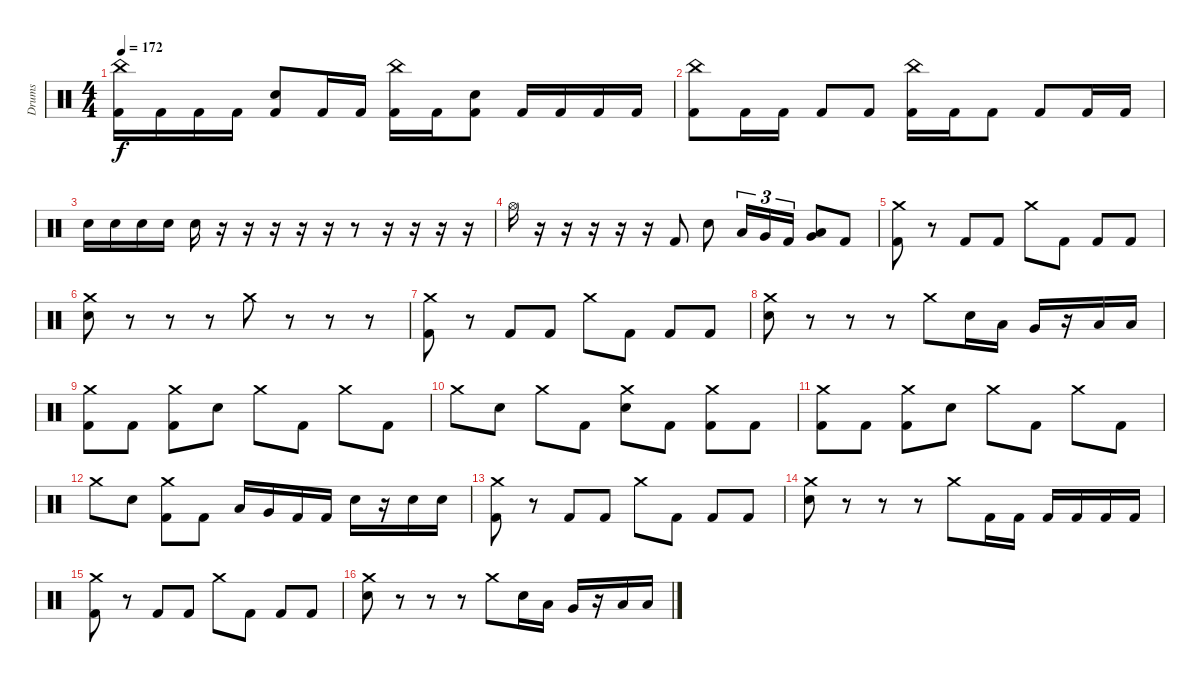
\track ("Drums" "Drums") {instrument percussion}
\staff {score}
\articulation defaults
\ts (4 4)
\tempo 172
\clef neutral
\ks c
("China (hit)" "Kick (hit) 2").16{dy f} "Kick (hit) 2".16 "Kick (hit) 2".16 "Kick (hit) 2".16 ("Electric Snare (hit)" "Kick (hit) 2").8 "Kick (hit) 2".16 "Kick (hit) 2".16 ("China (hit)" "Kick (hit) 2").16 "Kick (hit) 2".16 ("Electric Snare (hit)" "Kick (hit) 2").8 "Kick (hit) 2".16 "Kick (hit) 2".16 "Kick (hit) 2".16 "Kick (hit) 2".16 |
("China (hit)" "Kick (hit) 2").8 "Kick (hit) 2".16 "Kick (hit) 2".16 "Kick (hit) 2".8 "Kick (hit) 2".8 ("China (hit)" "Kick (hit) 2").16 "Kick (hit) 2".16 "Kick (hit) 2".8 "Kick (hit) 2".8 "Kick (hit) 2".16 "Kick (hit) 2".16 |
"Electric Snare (hit)".16 "Electric Snare (hit)".16 "Electric Snare (hit)".16 "Electric Snare (hit)".16 "Electric Snare (hit)".16 r.16 r.16 r.16 r.16 r.16 r.8 r.16 r.16 r.16 r.16 |
"Hi-Hat (open)".16 r.16 r.16 r.16 r.16 r.16 "Kick (hit) 2".8 "Electric Snare (hit)".8 "Low Tom (hit)".16{tu (3 2)} "Very Low Tom (hit)".16{tu (3 2)} "Kick (hit) 2".16{tu (3 2)} ("Very Low Tom (hit)" "Low Floor Tom (hit)").8 "Kick (hit) 2".8 |
("Crash medium (hit)" "Kick (hit) 2").8 r.8 "Kick (hit) 2".8 "Kick (hit) 2".8 "Crash medium (hit)".8 "Kick (hit) 2".8 "Kick (hit) 2".8 "Kick (hit) 2".8 |
("Crash medium (hit)" "Electric Snare (hit)").8 r.8 r.8 r.8 "Crash medium (hit)".8 r.8 r.8 r.8 |
("Crash medium (hit)" "Kick (hit) 2").8 r.8 "Kick (hit) 2".8 "Kick (hit) 2".8 "Crash medium (hit)".8 "Kick (hit) 2".8 "Kick (hit) 2".8 "Kick (hit) 2".8 |
("Crash medium (hit)" "Electric Snare (hit)").8 r.8 r.8 r.8 "Crash medium (hit)".8 "Electric Snare (hit)".16 "Low Tom (hit)".16 "Very Low Tom (hit)".16 r.16 "Low Floor Tom (hit)".16 "Low Floor Tom (hit)".16 |
("Crash medium (hit)" "Kick (hit) 2").8 "Kick (hit) 2".8 ("Crash medium (hit)" "Kick (hit) 2").8 "Electric Snare (hit)".8 "Crash medium (hit)".8 "Kick (hit) 2".8 "Crash medium (hit)".8 "Kick (hit) 2".8 |
"Crash medium (hit)".8 "Electric Snare (hit)".8 "Crash medium (hit)".8 "Kick (hit) 2".8 ("Crash medium (hit)" "Electric Snare (hit)").8 "Kick (hit) 2".8 ("Crash medium (hit)" "Kick (hit) 2").8 "Kick (hit) 2".8 |
("Crash medium (hit)" "Kick (hit) 2").8 "Kick (hit) 2".8 ("Crash medium (hit)" "Kick (hit) 2").8 "Electric Snare (hit)".8 "Crash medium (hit)".8 "Kick (hit) 2".8 "Crash medium (hit)".8 "Kick (hit) 2".8 |
"Crash medium (hit)".8 "Electric Snare (hit)".8 ("Crash medium (hit)" "Kick (hit) 2").8 "Kick (hit) 2".8 "Low Tom (hit)".16 "Very Low Tom (hit)".16 "Kick (hit) 2".16 "Kick (hit) 2".16 "Electric Snare (hit)".16 r.16 "Electric Snare (hit)".16 "Electric Snare (hit)".16 |
("Crash medium (hit)" "Kick (hit) 2").8 r.8 "Kick (hit) 2".8 "Kick (hit) 2".8 "Crash medium (hit)".8 "Kick (hit) 2".8 "Kick (hit) 2".8 "Kick (hit) 2".8 |
("Crash medium (hit)" "Electric Snare (hit)").8 r.8 r.8 r.8 "Crash medium (hit)".8 "Kick (hit) 2".16 "Kick (hit) 2".16 "Kick (hit) 2".16 "Kick (hit) 2".16 "Kick (hit) 2".16 "Kick (hit) 2".16 |
("Crash medium (hit)" "Kick (hit) 2").8 r.8 "Kick (hit) 2".8 "Kick (hit) 2".8 "Crash medium (hit)".8 "Kick (hit) 2".8 "Kick (hit) 2".8 "Kick (hit) 2".8 |
("Crash medium (hit)" "Electric Snare (hit)").8 r.8 r.8 r.8 "Crash medium (hit)".8 "Electric Snare (hit)".16 "Low Tom (hit)".16 "Very Low Tom (hit)".16 r.16 "Low Floor Tom (hit)".16 "Low Floor Tom (hit)".16
